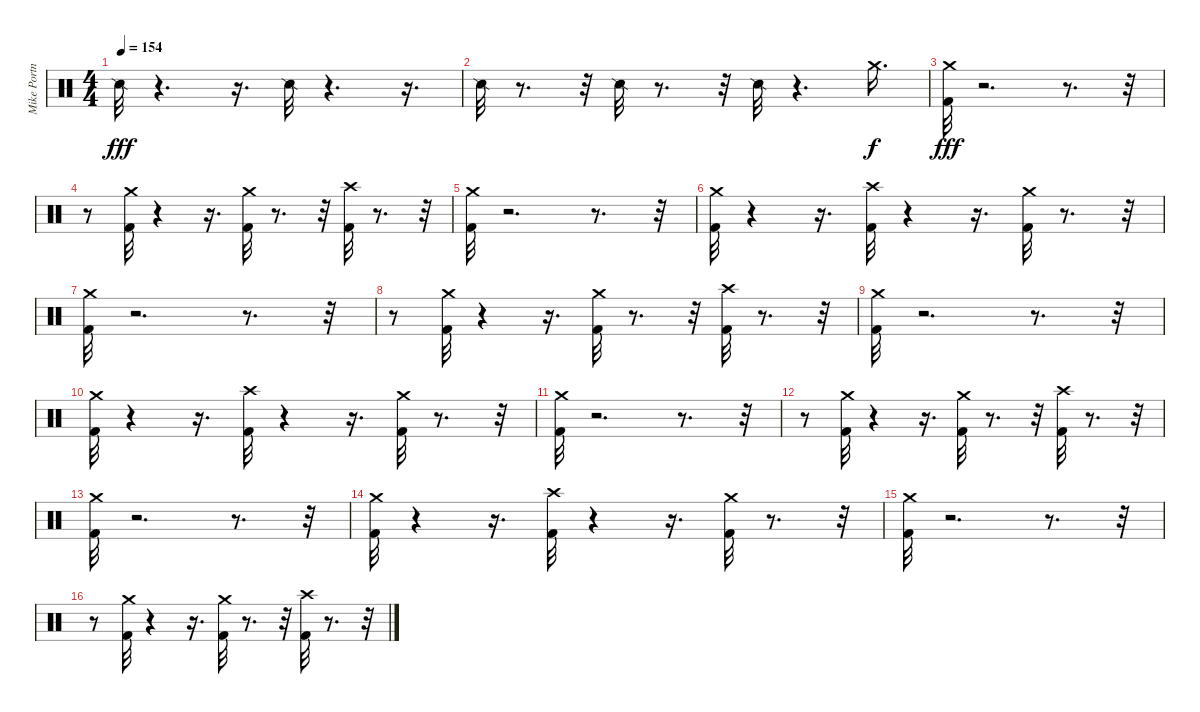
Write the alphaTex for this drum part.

\track ("Mike Portnoy" "Mike Portn") {instrument percussion}
\staff {score}
\articulation defaults
\ts (4 4)
\tempo 154
\clef neutral
\ks c "Snare (side stick) 2".32{dy fff}
r.4{d} r.16{d} "Snare (side stick) 2".32 r.4{d} r.16{d} |
"Snare (side stick) 2".32 r.8{d} r.32 "Snare (side stick) 2".32 r.8{d} r.32 "Snare (side stick) 2".32 r.4{d} "Crash medium (hit)".16{d dy f} |
("Crash medium (hit)" "Kick (hit) 2").32{dy fff} r.2{d} r.8{d} r.32 |
r.8 ("Crash medium (hit)" "Kick (hit) 2").32 r.4 r.16{d} ("Kick (hit) 2" "Crash medium (hit)").32 r.8{d} r.32 ("Crash high (hit)" "Kick (hit) 2").32 r.8{d} r.32 |
("Crash medium (hit)" "Kick (hit) 2").32 r.2{d} r.8{d} r.32 |
("Crash medium (hit)" "Kick (hit) 2").32 r.4 r.16{d} ("Crash high (hit)" "Kick (hit) 2").32 r.4 r.16{d} ("Kick (hit) 2" "Crash medium (hit)").32 r.8{d} r.32 |
("Crash medium (hit)" "Kick (hit) 2").32 r.2{d} r.8{d} r.32 |
r.8 ("Crash medium (hit)" "Kick (hit) 2").32 r.4 r.16{d} ("Kick (hit) 2" "Crash medium (hit)").32 r.8{d} r.32 ("Crash high (hit)" "Kick (hit) 2").32 r.8{d} r.32 |
("Crash medium (hit)" "Kick (hit) 2").32 r.2{d} r.8{d} r.32 |
("Crash medium (hit)" "Kick (hit) 2").32 r.4 r.16{d} ("Crash high (hit)" "Kick (hit) 2").32 r.4 r.16{d} ("Kick (hit) 2" "Crash medium (hit)").32 r.8{d} r.32 |
("Crash medium (hit)" "Kick (hit) 2").32 r.2{d} r.8{d} r.32 |
r.8 ("Crash medium (hit)" "Kick (hit) 2").32 r.4 r.16{d} ("Kick (hit) 2" "Crash medium (hit)").32 r.8{d} r.32 ("Crash high (hit)" "Kick (hit) 2").32 r.8{d} r.32 |
("Crash medium (hit)" "Kick (hit) 2").32 r.2{d} r.8{d} r.32 |
("Crash medium (hit)" "Kick (hit) 2").32 r.4 r.16{d} ("Crash high (hit)" "Kick (hit) 2").32 r.4 r.16{d} ("Kick (hit) 2" "Crash medium (hit)").32 r.8{d} r.32 |
("Crash medium (hit)" "Kick (hit) 2").32 r.2{d} r.8{d} r.32 |
r.8 ("Crash medium (hit)" "Kick (hit) 2").32 r.4 r.16{d} ("Kick (hit) 2" "Crash medium (hit)").32 r.8{d} r.32 ("Crash high (hit)" "Kick (hit) 2").32 r.8{d} r.32
